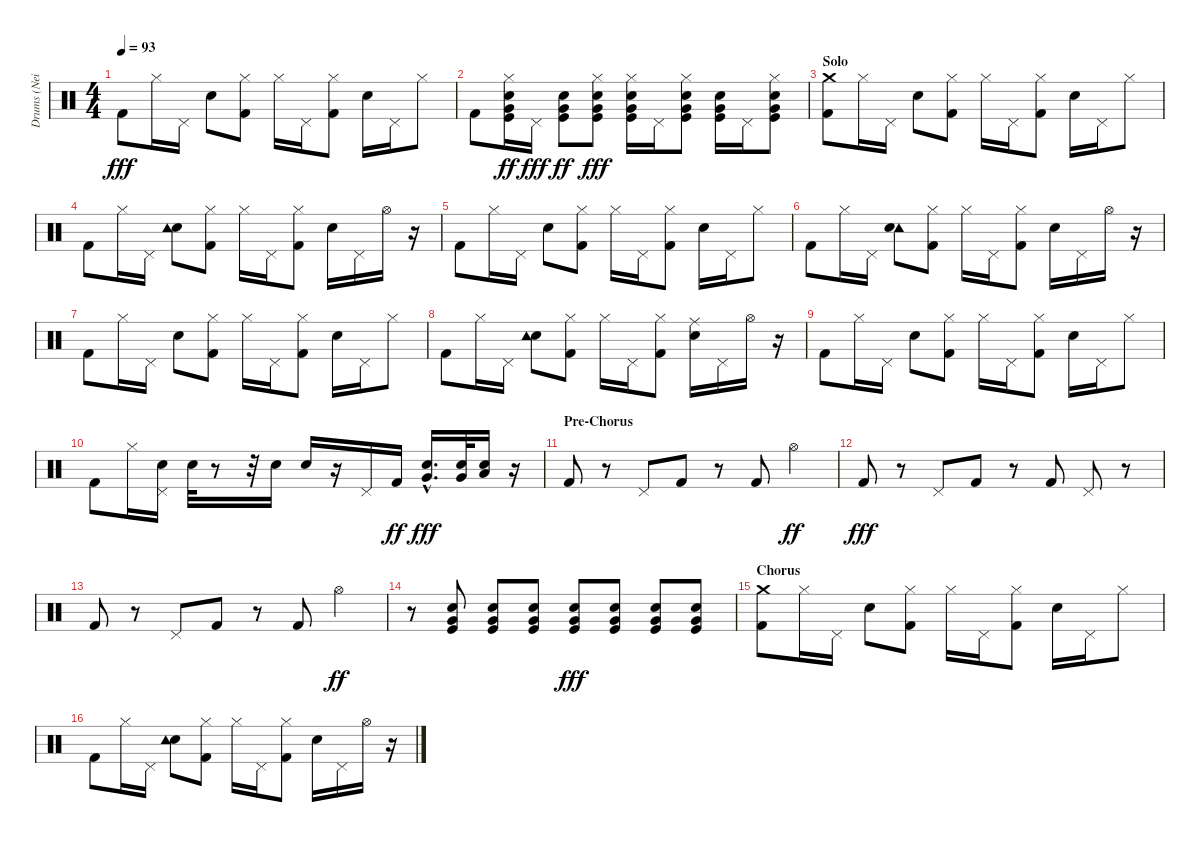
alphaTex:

\track ("Drums (Neil)" "Drums (Nei") {instrument percussion}
\staff {score}
\articulation defaults
\ts (4 4)
\tempo 93
\clef neutral
\ks c "Kick (hit) 2".8{dy fff} "Hi-Hat (closed)".16 "Pedal Hi-Hat (hit)".16 "Electric Snare (hit)".8
("Kick (hit) 2" "Hi-Hat (closed)").8 "Hi-Hat (closed)".16 "Pedal Hi-Hat (hit)".16 ("Kick (hit) 2" "Hi-Hat (closed)").8 "Electric Snare (hit)".16 "Pedal Hi-Hat (hit)".16 "Hi-Hat (closed)".8 |
"Kick (hit) 2".8 ("Electric Snare (hit)" "Kick (hit)" "Hi-Hat (closed)" "Very Low Tom (hit)").16{dy ff} "Pedal Hi-Hat (hit)".16{dy fff} ("Very Low Tom (hit)" "Kick (hit)" "Electric Snare (hit)").8{dy ff} ("Electric Snare (hit)" "Kick (hit)" "Very Low Tom (hit)" "Hi-Hat (closed)").8{dy fff} ("Electric Snare (hit)" "Kick (hit)" "Hi-Hat (closed)" "Very Low Tom (hit)").16 "Pedal Hi-Hat (hit)".16 ("Hi-Hat (closed)" "Electric Snare (hit)" "Very Low Tom (hit)" "Kick (hit)").8 ("Kick (hit)" "Electric Snare (hit)" "Very Low Tom (hit)").16 "Pedal Hi-Hat (hit)".16 ("Hi-Hat (closed)" "Very Low Tom (hit)" "Electric Snare (hit)" "Kick (hit)").8 |
\section ("" "Solo")
("Kick (hit) 2" "Crash medium (hit)").8 "Hi-Hat (closed)".16 "Pedal Hi-Hat (hit)".16 "Electric Snare (hit)".8 ("Kick (hit) 2" "Hi-Hat (closed)").8 "Hi-Hat (closed)".16 "Pedal Hi-Hat (hit)".16 ("Kick (hit) 2" "Hi-Hat (closed)").8 "Electric Snare (hit)".16 "Pedal Hi-Hat (hit)".16 "Hi-Hat (closed)".8 |
"Kick (hit) 2".8 "Hi-Hat (closed)".16 "Pedal Hi-Hat (hit)".16 ("Electric Snare (hit)" "Tambourine (hit)").8 ("Hi-Hat (closed)" "Kick (hit) 2").8 "Hi-Hat (closed)".16 "Pedal Hi-Hat (hit)".16 ("Hi-Hat (closed)" "Kick (hit) 2").8 "Electric Snare (hit)".16 "Pedal Hi-Hat (hit)".16 "Hi-Hat (open)".16 r.16 |
"Kick (hit) 2".8 "Hi-Hat (closed)".16 "Pedal Hi-Hat (hit)".16 "Electric Snare (hit)".8 ("Hi-Hat (closed)" "Kick (hit) 2").8 "Hi-Hat (closed)".16 "Pedal Hi-Hat (hit)".16 ("Kick (hit) 2" "Hi-Hat (closed)").8 "Electric Snare (hit)".16 "Pedal Hi-Hat (hit)".16 "Hi-Hat (closed)".8 |
"Kick (hit) 2".8 "Hi-Hat (closed)".16 "Pedal Hi-Hat (hit)".16 ("Tambourine (hit)" "Electric Snare (hit)").8 ("Kick (hit) 2" "Hi-Hat (closed)").8 "Hi-Hat (closed)".16 "Pedal Hi-Hat (hit)".16 ("Kick (hit) 2" "Hi-Hat (closed)").8 "Electric Snare (hit)".16 "Pedal Hi-Hat (hit)".16 "Hi-Hat (open)".16 r.16 |
"Kick (hit) 2".8 "Hi-Hat (closed)".16 "Pedal Hi-Hat (hit)".16 "Electric Snare (hit)".8 ("Kick (hit) 2" "Hi-Hat (closed)").8 "Hi-Hat (closed)".16 "Pedal Hi-Hat (hit)".16 ("Kick (hit) 2" "Hi-Hat (closed)").8 "Electric Snare (hit)".16 "Pedal Hi-Hat (hit)".16 "Hi-Hat (closed)".8 |
"Kick (hit) 2".8 "Hi-Hat (closed)".16 "Pedal Hi-Hat (hit)".16 ("Electric Snare (hit)" "Tambourine (hit)").8 ("Hi-Hat (closed)" "Kick (hit) 2").8 "Hi-Hat (closed)".16 "Pedal Hi-Hat (hit)".16 ("Kick (hit) 2" "Hi-Hat (closed)").8 ("Ride (middle)" "Electric Snare (hit)").16 "Pedal Hi-Hat (hit)".16 "Hi-Hat (open)".16 r.16 |
"Kick (hit) 2".8 "Hi-Hat (closed)".16 "Pedal Hi-Hat (hit)".16 "Electric Snare (hit)".8 ("Hi-Hat (closed)" "Kick (hit) 2").8 "Hi-Hat (closed)".16 "Pedal Hi-Hat (hit)".16 ("Kick (hit) 2" "Hi-Hat (closed)").8 "Electric Snare (hit)".16 "Pedal Hi-Hat (hit)".16 "Hi-Hat (closed)".8 |
"Kick (hit) 2".8 "Hi-Hat (closed)".16 ("Pedal Hi-Hat (hit)" "Electric Snare (hit)").16 "Electric Snare (hit)".32 r.8 r.32 "Electric Snare (hit)".16 "Electric Snare (hit)".16 r.16 "Pedal Hi-Hat (hit)".16 "Kick (hit) 2".16{dy ff} ("Very Low Tom (hit)" "Electric Snare (hit)"{hac}).16{d dy fff} ("Very Low Tom (hit)" "Electric Snare (hit)").32 ("Low Floor Tom (hit)" "Electric Snare (hit)").16 r.16 |
\section ("" "Pre-Chorus")
"Kick (hit) 2".8 r.8 "Pedal Hi-Hat (hit)".8 "Kick (hit) 2".8 r.8 "Kick (hit) 2".8 "Hi-Hat (open)".4{dy ff} |
"Kick (hit) 2".8{dy fff} r.8 "Pedal Hi-Hat (hit)".8 "Kick (hit) 2".8 r.8 "Kick (hit) 2".8 "Pedal Hi-Hat (hit)".8 r.8 |
"Kick (hit) 2".8 r.8 "Pedal Hi-Hat (hit)".8 "Kick (hit) 2".8 r.8 "Kick (hit) 2".8 "Hi-Hat (open)".4{dy ff} |
r.8 ("Very Low Tom (hit)" "Kick (hit)" "Electric Snare (hit)").8 ("Kick (hit)" "Very Low Tom (hit)" "Electric Snare (hit)").8 ("Electric Snare (hit)" "Kick (hit)" "Very Low Tom (hit)").8 ("Electric Snare (hit)" "Kick (hit)" "Very Low Tom (hit)").8{dy fff} ("Kick (hit)" "Very Low Tom (hit)" "Electric Snare (hit)").8 ("Very Low Tom (hit)" "Kick (hit)" "Electric Snare (hit)").8 ("Kick (hit)" "Electric Snare (hit)" "Very Low Tom (hit)").8 |
\section ("" "Chorus")
("Crash medium (hit)" "Kick (hit) 2").8 "Hi-Hat (closed)".16 "Pedal Hi-Hat (hit)".16 "Electric Snare (hit)".8 ("Kick (hit) 2" "Hi-Hat (closed)").8 "Hi-Hat (closed)".16 "Pedal Hi-Hat (hit)".16 ("Hi-Hat (closed)" "Kick (hit) 2").8 "Electric Snare (hit)".16 "Pedal Hi-Hat (hit)".16 "Hi-Hat (closed)".8 |
"Kick (hit) 2".8 "Hi-Hat (closed)".16 "Pedal Hi-Hat (hit)".16 ("Electric Snare (hit)" "Tambourine (hit)").8 ("Hi-Hat (closed)" "Kick (hit) 2").8 "Hi-Hat (closed)".16 "Pedal Hi-Hat (hit)".16 ("Hi-Hat (closed)" "Kick (hit) 2").8 "Electric Snare (hit)".16 "Pedal Hi-Hat (hit)".16 "Hi-Hat (open)".16 r.16
